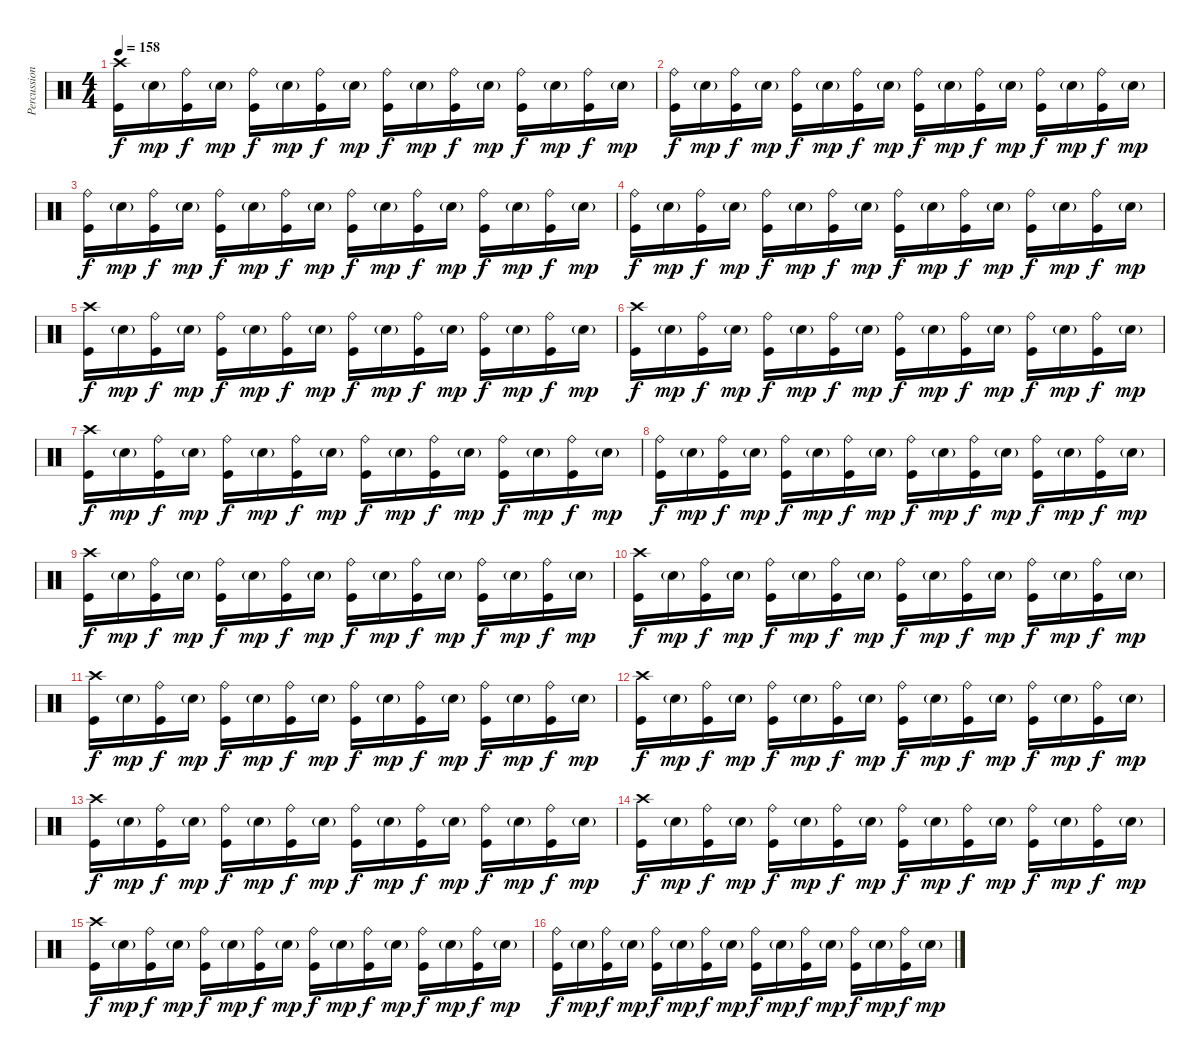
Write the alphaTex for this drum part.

\track ("Percussion" "Percussion") {instrument percussion}
\staff {score}
\articulation defaults
\ts (4 4)
\tempo 158
\clef neutral
\ks c
("Crash high (hit)" "Kick (hit)").16{dy f} "Snare (hit) 2"{g}.16{dy mp} ("Ride (bell)" "Kick (hit)").16{dy f} "Snare (hit) 2"{g}.16{dy mp} ("Ride (bell)" "Kick (hit)").16{dy f} "Snare (hit) 2"{g}.16{dy mp} ("Ride (bell)" "Kick (hit)").16{dy f} "Snare (hit) 2"{g}.16{dy mp} ("Ride (bell)" "Kick (hit)").16{dy f} "Snare (hit) 2"{g}.16{dy mp} ("Ride (bell)" "Kick (hit)").16{dy f} "Snare (hit) 2"{g}.16{dy mp} ("Ride (bell)" "Kick (hit)").16{dy f} "Snare (hit) 2"{g}.16{dy mp} ("Ride (bell)" "Kick (hit)").16{dy f} "Snare (hit) 2"{g}.16{dy mp} |
("Ride (bell)" "Kick (hit)").16{dy f} "Snare (hit) 2"{g}.16{dy mp} ("Ride (bell)" "Kick (hit)").16{dy f} "Snare (hit) 2"{g}.16{dy mp} ("Ride (bell)" "Kick (hit)").16{dy f} "Snare (hit) 2"{g}.16{dy mp} ("Ride (bell)" "Kick (hit)").16{dy f} "Snare (hit) 2"{g}.16{dy mp} ("Ride (bell)" "Kick (hit)").16{dy f} "Snare (hit) 2"{g}.16{dy mp} ("Ride (bell)" "Kick (hit)").16{dy f} "Snare (hit) 2"{g}.16{dy mp} ("Ride (bell)" "Kick (hit)").16{dy f} "Snare (hit) 2"{g}.16{dy mp} ("Ride (bell)" "Kick (hit)").16{dy f} "Snare (hit) 2"{g}.16{dy mp} |
("Ride (bell)" "Kick (hit)").16{dy f} "Snare (hit) 2"{g}.16{dy mp} ("Ride (bell)" "Kick (hit)").16{dy f} "Snare (hit) 2"{g}.16{dy mp} ("Ride (bell)" "Kick (hit)").16{dy f} "Snare (hit) 2"{g}.16{dy mp} ("Ride (bell)" "Kick (hit)").16{dy f} "Snare (hit) 2"{g}.16{dy mp} ("Ride (bell)" "Kick (hit)").16{dy f} "Snare (hit) 2"{g}.16{dy mp} ("Ride (bell)" "Kick (hit)").16{dy f} "Snare (hit) 2"{g}.16{dy mp} ("Ride (bell)" "Kick (hit)").16{dy f} "Snare (hit) 2"{g}.16{dy mp} ("Ride (bell)" "Kick (hit)").16{dy f} "Snare (hit) 2"{g}.16{dy mp} |
("Ride (bell)" "Kick (hit)").16{dy f} "Snare (hit) 2"{g}.16{dy mp} ("Ride (bell)" "Kick (hit)").16{dy f} "Snare (hit) 2"{g}.16{dy mp} ("Ride (bell)" "Kick (hit)").16{dy f} "Snare (hit) 2"{g}.16{dy mp} ("Ride (bell)" "Kick (hit)").16{dy f} "Snare (hit) 2"{g}.16{dy mp} ("Ride (bell)" "Kick (hit)").16{dy f} "Snare (hit) 2"{g}.16{dy mp} ("Ride (bell)" "Kick (hit)").16{dy f} "Snare (hit) 2"{g}.16{dy mp} ("Ride (bell)" "Kick (hit)").16{dy f} "Snare (hit) 2"{g}.16{dy mp} ("Ride (bell)" "Kick (hit)").16{dy f} "Snare (hit) 2"{g}.16{dy mp} |
("Crash high (hit)" "Kick (hit)").16{dy f} "Snare (hit) 2"{g}.16{dy mp} ("Ride (bell)" "Kick (hit)").16{dy f} "Snare (hit) 2"{g}.16{dy mp} ("Ride (bell)" "Kick (hit)").16{dy f} "Snare (hit) 2"{g}.16{dy mp} ("Ride (bell)" "Kick (hit)").16{dy f} "Snare (hit) 2"{g}.16{dy mp} ("Ride (bell)" "Kick (hit)").16{dy f} "Snare (hit) 2"{g}.16{dy mp} ("Ride (bell)" "Kick (hit)").16{dy f} "Snare (hit) 2"{g}.16{dy mp} ("Ride (bell)" "Kick (hit)").16{dy f} "Snare (hit) 2"{g}.16{dy mp} ("Ride (bell)" "Kick (hit)").16{dy f} "Snare (hit) 2"{g}.16{dy mp} |
("Crash high (hit)" "Kick (hit)").16{dy f} "Snare (hit) 2"{g}.16{dy mp} ("Ride (bell)" "Kick (hit)").16{dy f} "Snare (hit) 2"{g}.16{dy mp} ("Ride (bell)" "Kick (hit)").16{dy f} "Snare (hit) 2"{g}.16{dy mp} ("Ride (bell)" "Kick (hit)").16{dy f} "Snare (hit) 2"{g}.16{dy mp} ("Ride (bell)" "Kick (hit)").16{dy f} "Snare (hit) 2"{g}.16{dy mp} ("Ride (bell)" "Kick (hit)").16{dy f} "Snare (hit) 2"{g}.16{dy mp} ("Ride (bell)" "Kick (hit)").16{dy f} "Snare (hit) 2"{g}.16{dy mp} ("Ride (bell)" "Kick (hit)").16{dy f} "Snare (hit) 2"{g}.16{dy mp} |
("Crash high (hit)" "Kick (hit)").16{dy f} "Snare (hit) 2"{g}.16{dy mp} ("Ride (bell)" "Kick (hit)").16{dy f} "Snare (hit) 2"{g}.16{dy mp} ("Ride (bell)" "Kick (hit)").16{dy f} "Snare (hit) 2"{g}.16{dy mp} ("Ride (bell)" "Kick (hit)").16{dy f} "Snare (hit) 2"{g}.16{dy mp} ("Ride (bell)" "Kick (hit)").16{dy f} "Snare (hit) 2"{g}.16{dy mp} ("Ride (bell)" "Kick (hit)").16{dy f} "Snare (hit) 2"{g}.16{dy mp} ("Ride (bell)" "Kick (hit)").16{dy f} "Snare (hit) 2"{g}.16{dy mp} ("Ride (bell)" "Kick (hit)").16{dy f} "Snare (hit) 2"{g}.16{dy mp} |
("Ride (bell)" "Kick (hit)").16{dy f} "Snare (hit) 2"{g}.16{dy mp} ("Ride (bell)" "Kick (hit)").16{dy f} "Snare (hit) 2"{g}.16{dy mp} ("Ride (bell)" "Kick (hit)").16{dy f} "Snare (hit) 2"{g}.16{dy mp} ("Ride (bell)" "Kick (hit)").16{dy f} "Snare (hit) 2"{g}.16{dy mp} ("Ride (bell)" "Kick (hit)").16{dy f} "Snare (hit) 2"{g}.16{dy mp} ("Ride (bell)" "Kick (hit)").16{dy f} "Snare (hit) 2"{g}.16{dy mp} ("Ride (bell)" "Kick (hit)").16{dy f} "Snare (hit) 2"{g}.16{dy mp} ("Ride (bell)" "Kick (hit)").16{dy f} "Snare (hit) 2"{g}.16{dy mp} |
("Crash high (hit)" "Kick (hit)").16{dy f} "Snare (hit) 2"{g}.16{dy mp} ("Ride (bell)" "Kick (hit)").16{dy f} "Snare (hit) 2"{g}.16{dy mp} ("Ride (bell)" "Kick (hit)").16{dy f} "Snare (hit) 2"{g}.16{dy mp} ("Ride (bell)" "Kick (hit)").16{dy f} "Snare (hit) 2"{g}.16{dy mp} ("Ride (bell)" "Kick (hit)").16{dy f} "Snare (hit) 2"{g}.16{dy mp} ("Ride (bell)" "Kick (hit)").16{dy f} "Snare (hit) 2"{g}.16{dy mp} ("Ride (bell)" "Kick (hit)").16{dy f} "Snare (hit) 2"{g}.16{dy mp} ("Ride (bell)" "Kick (hit)").16{dy f} "Snare (hit) 2"{g}.16{dy mp} |
("Crash high (hit)" "Kick (hit)").16{dy f} "Snare (hit) 2"{g}.16{dy mp} ("Ride (bell)" "Kick (hit)").16{dy f} "Snare (hit) 2"{g}.16{dy mp} ("Ride (bell)" "Kick (hit)").16{dy f} "Snare (hit) 2"{g}.16{dy mp} ("Ride (bell)" "Kick (hit)").16{dy f} "Snare (hit) 2"{g}.16{dy mp} ("Ride (bell)" "Kick (hit)").16{dy f} "Snare (hit) 2"{g}.16{dy mp} ("Ride (bell)" "Kick (hit)").16{dy f} "Snare (hit) 2"{g}.16{dy mp} ("Ride (bell)" "Kick (hit)").16{dy f} "Snare (hit) 2"{g}.16{dy mp} ("Ride (bell)" "Kick (hit)").16{dy f} "Snare (hit) 2"{g}.16{dy mp} |
("Crash high (hit)" "Kick (hit)").16{dy f} "Snare (hit) 2"{g}.16{dy mp} ("Ride (bell)" "Kick (hit)").16{dy f} "Snare (hit) 2"{g}.16{dy mp} ("Ride (bell)" "Kick (hit)").16{dy f} "Snare (hit) 2"{g}.16{dy mp} ("Ride (bell)" "Kick (hit)").16{dy f} "Snare (hit) 2"{g}.16{dy mp} ("Ride (bell)" "Kick (hit)").16{dy f} "Snare (hit) 2"{g}.16{dy mp} ("Ride (bell)" "Kick (hit)").16{dy f} "Snare (hit) 2"{g}.16{dy mp} ("Ride (bell)" "Kick (hit)").16{dy f} "Snare (hit) 2"{g}.16{dy mp} ("Ride (bell)" "Kick (hit)").16{dy f} "Snare (hit) 2"{g}.16{dy mp} |
("Crash high (hit)" "Kick (hit)").16{dy f} "Snare (hit) 2"{g}.16{dy mp} ("Ride (bell)" "Kick (hit)").16{dy f} "Snare (hit) 2"{g}.16{dy mp} ("Ride (bell)" "Kick (hit)").16{dy f} "Snare (hit) 2"{g}.16{dy mp} ("Ride (bell)" "Kick (hit)").16{dy f} "Snare (hit) 2"{g}.16{dy mp} ("Ride (bell)" "Kick (hit)").16{dy f} "Snare (hit) 2"{g}.16{dy mp} ("Ride (bell)" "Kick (hit)").16{dy f} "Snare (hit) 2"{g}.16{dy mp} ("Ride (bell)" "Kick (hit)").16{dy f} "Snare (hit) 2"{g}.16{dy mp} ("Ride (bell)" "Kick (hit)").16{dy f} "Snare (hit) 2"{g}.16{dy mp} |
("Crash high (hit)" "Kick (hit)").16{dy f} "Snare (hit) 2"{g}.16{dy mp} ("Ride (bell)" "Kick (hit)").16{dy f} "Snare (hit) 2"{g}.16{dy mp} ("Ride (bell)" "Kick (hit)").16{dy f} "Snare (hit) 2"{g}.16{dy mp} ("Ride (bell)" "Kick (hit)").16{dy f} "Snare (hit) 2"{g}.16{dy mp} ("Ride (bell)" "Kick (hit)").16{dy f} "Snare (hit) 2"{g}.16{dy mp} ("Ride (bell)" "Kick (hit)").16{dy f} "Snare (hit) 2"{g}.16{dy mp} ("Ride (bell)" "Kick (hit)").16{dy f} "Snare (hit) 2"{g}.16{dy mp} ("Ride (bell)" "Kick (hit)").16{dy f} "Snare (hit) 2"{g}.16{dy mp} |
("Crash high (hit)" "Kick (hit)").16{dy f} "Snare (hit) 2"{g}.16{dy mp} ("Ride (bell)" "Kick (hit)").16{dy f} "Snare (hit) 2"{g}.16{dy mp} ("Ride (bell)" "Kick (hit)").16{dy f} "Snare (hit) 2"{g}.16{dy mp} ("Ride (bell)" "Kick (hit)").16{dy f} "Snare (hit) 2"{g}.16{dy mp} ("Ride (bell)" "Kick (hit)").16{dy f} "Snare (hit) 2"{g}.16{dy mp} ("Ride (bell)" "Kick (hit)").16{dy f} "Snare (hit) 2"{g}.16{dy mp} ("Ride (bell)" "Kick (hit)").16{dy f} "Snare (hit) 2"{g}.16{dy mp} ("Ride (bell)" "Kick (hit)").16{dy f} "Snare (hit) 2"{g}.16{dy mp} |
("Crash high (hit)" "Kick (hit)").16{dy f} "Snare (hit) 2"{g}.16{dy mp} ("Ride (bell)" "Kick (hit)").16{dy f} "Snare (hit) 2"{g}.16{dy mp} ("Ride (bell)" "Kick (hit)").16{dy f} "Snare (hit) 2"{g}.16{dy mp} ("Ride (bell)" "Kick (hit)").16{dy f} "Snare (hit) 2"{g}.16{dy mp} ("Ride (bell)" "Kick (hit)").16{dy f} "Snare (hit) 2"{g}.16{dy mp} ("Ride (bell)" "Kick (hit)").16{dy f} "Snare (hit) 2"{g}.16{dy mp} ("Ride (bell)" "Kick (hit)").16{dy f} "Snare (hit) 2"{g}.16{dy mp} ("Ride (bell)" "Kick (hit)").16{dy f} "Snare (hit) 2"{g}.16{dy mp} |
("Ride (bell)" "Kick (hit)").16{dy f} "Snare (hit) 2"{g}.16{dy mp} ("Ride (bell)" "Kick (hit)").16{dy f} "Snare (hit) 2"{g}.16{dy mp} ("Ride (bell)" "Kick (hit)").16{dy f} "Snare (hit) 2"{g}.16{dy mp} ("Ride (bell)" "Kick (hit)").16{dy f} "Snare (hit) 2"{g}.16{dy mp} ("Ride (bell)" "Kick (hit)").16{dy f} "Snare (hit) 2"{g}.16{dy mp} ("Ride (bell)" "Kick (hit)").16{dy f} "Snare (hit) 2"{g}.16{dy mp} ("Ride (bell)" "Kick (hit)").16{dy f} "Snare (hit) 2"{g}.16{dy mp} ("Ride (bell)" "Kick (hit)").16{dy f} "Snare (hit) 2"{g}.16{dy mp}
